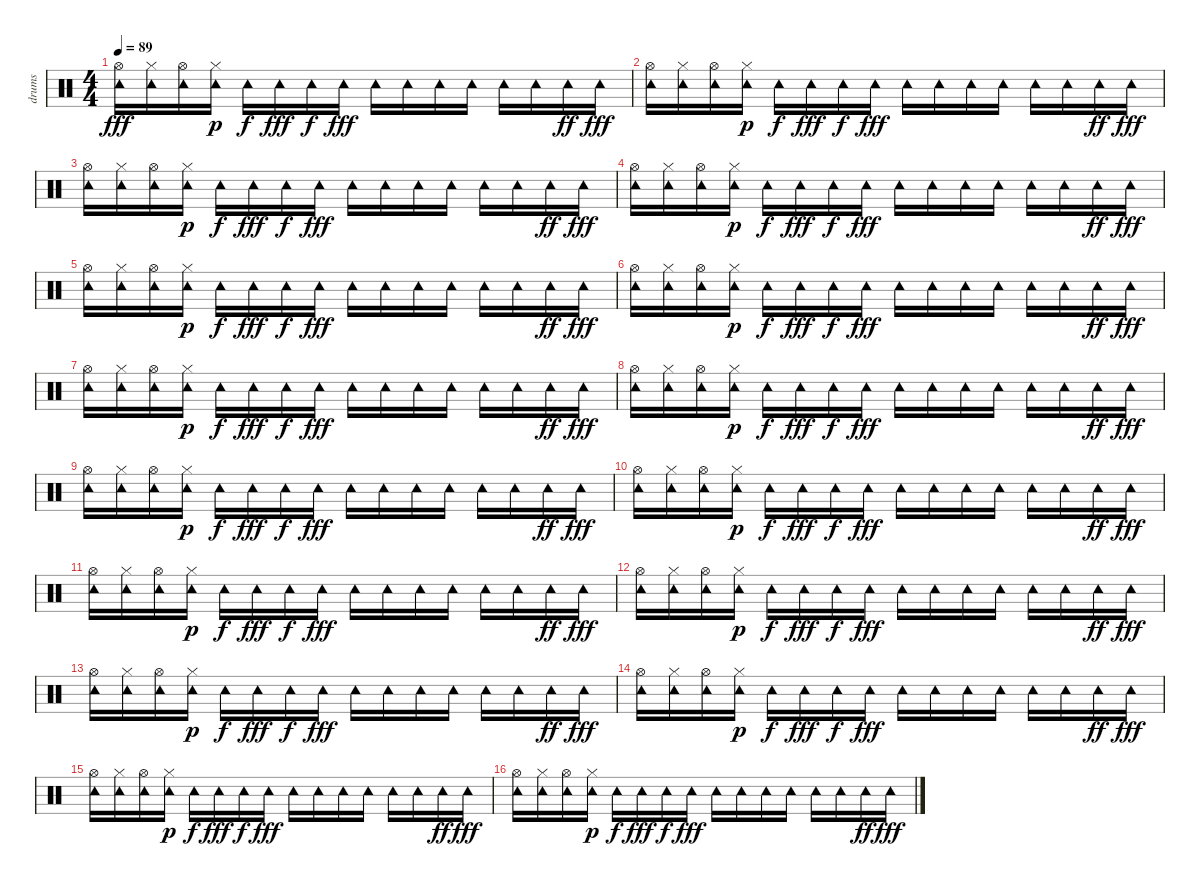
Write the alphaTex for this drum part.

\track ("drums" "drums") {instrument percussion}
\staff {score}
\articulation defaults
\ts (4 4)
\tempo 89
\clef neutral
\ks c
("Hi-Hat (open)" "Tambourine (hit)").16{dy fff} ("Hi-Hat (closed)" "Tambourine (hit)").16 ("Hi-Hat (open)" "Tambourine (hit)").16 ("Hi-Hat (closed)" "Tambourine (hit)").16{dy p} "Tambourine (hit)".16{dy f} "Tambourine (hit)".16{dy fff} "Tambourine (hit)".16{dy f} "Tambourine (hit)".16{dy fff} "Tambourine (hit)".16 "Tambourine (hit)".16 "Tambourine (hit)".16 "Tambourine (hit)".16 "Tambourine (hit)".16 "Tambourine (hit)".16 "Tambourine (hit)".16{dy ff} "Tambourine (hit)".16{dy fff} |
("Hi-Hat (open)" "Tambourine (hit)").16 ("Hi-Hat (closed)" "Tambourine (hit)").16 ("Hi-Hat (open)" "Tambourine (hit)").16 ("Hi-Hat (closed)" "Tambourine (hit)").16{dy p} "Tambourine (hit)".16{dy f} "Tambourine (hit)".16{dy fff} "Tambourine (hit)".16{dy f} "Tambourine (hit)".16{dy fff} "Tambourine (hit)".16 "Tambourine (hit)".16 "Tambourine (hit)".16 "Tambourine (hit)".16 "Tambourine (hit)".16 "Tambourine (hit)".16 "Tambourine (hit)".16{dy ff} "Tambourine (hit)".16{dy fff} |
("Hi-Hat (open)" "Tambourine (hit)").16 ("Hi-Hat (closed)" "Tambourine (hit)").16 ("Hi-Hat (open)" "Tambourine (hit)").16 ("Hi-Hat (closed)" "Tambourine (hit)").16{dy p} "Tambourine (hit)".16{dy f} "Tambourine (hit)".16{dy fff} "Tambourine (hit)".16{dy f} "Tambourine (hit)".16{dy fff} "Tambourine (hit)".16 "Tambourine (hit)".16 "Tambourine (hit)".16 "Tambourine (hit)".16 "Tambourine (hit)".16 "Tambourine (hit)".16 "Tambourine (hit)".16{dy ff} "Tambourine (hit)".16{dy fff} |
("Hi-Hat (open)" "Tambourine (hit)").16 ("Hi-Hat (closed)" "Tambourine (hit)").16 ("Hi-Hat (open)" "Tambourine (hit)").16 ("Hi-Hat (closed)" "Tambourine (hit)").16{dy p} "Tambourine (hit)".16{dy f} "Tambourine (hit)".16{dy fff} "Tambourine (hit)".16{dy f} "Tambourine (hit)".16{dy fff} "Tambourine (hit)".16 "Tambourine (hit)".16 "Tambourine (hit)".16 "Tambourine (hit)".16 "Tambourine (hit)".16 "Tambourine (hit)".16 "Tambourine (hit)".16{dy ff} "Tambourine (hit)".16{dy fff} |
("Hi-Hat (open)" "Tambourine (hit)").16 ("Hi-Hat (closed)" "Tambourine (hit)").16 ("Hi-Hat (open)" "Tambourine (hit)").16 ("Hi-Hat (closed)" "Tambourine (hit)").16{dy p} "Tambourine (hit)".16{dy f} "Tambourine (hit)".16{dy fff} "Tambourine (hit)".16{dy f} "Tambourine (hit)".16{dy fff} "Tambourine (hit)".16 "Tambourine (hit)".16 "Tambourine (hit)".16 "Tambourine (hit)".16 "Tambourine (hit)".16 "Tambourine (hit)".16 "Tambourine (hit)".16{dy ff} "Tambourine (hit)".16{dy fff} |
("Hi-Hat (open)" "Tambourine (hit)").16 ("Hi-Hat (closed)" "Tambourine (hit)").16 ("Hi-Hat (open)" "Tambourine (hit)").16 ("Hi-Hat (closed)" "Tambourine (hit)").16{dy p} "Tambourine (hit)".16{dy f} "Tambourine (hit)".16{dy fff} "Tambourine (hit)".16{dy f} "Tambourine (hit)".16{dy fff} "Tambourine (hit)".16 "Tambourine (hit)".16 "Tambourine (hit)".16 "Tambourine (hit)".16 "Tambourine (hit)".16 "Tambourine (hit)".16 "Tambourine (hit)".16{dy ff} "Tambourine (hit)".16{dy fff} |
("Hi-Hat (open)" "Tambourine (hit)").16 ("Hi-Hat (closed)" "Tambourine (hit)").16 ("Hi-Hat (open)" "Tambourine (hit)").16 ("Hi-Hat (closed)" "Tambourine (hit)").16{dy p} "Tambourine (hit)".16{dy f} "Tambourine (hit)".16{dy fff} "Tambourine (hit)".16{dy f} "Tambourine (hit)".16{dy fff} "Tambourine (hit)".16 "Tambourine (hit)".16 "Tambourine (hit)".16 "Tambourine (hit)".16 "Tambourine (hit)".16 "Tambourine (hit)".16 "Tambourine (hit)".16{dy ff} "Tambourine (hit)".16{dy fff} |
("Hi-Hat (open)" "Tambourine (hit)").16 ("Hi-Hat (closed)" "Tambourine (hit)").16 ("Hi-Hat (open)" "Tambourine (hit)").16 ("Hi-Hat (closed)" "Tambourine (hit)").16{dy p} "Tambourine (hit)".16{dy f} "Tambourine (hit)".16{dy fff} "Tambourine (hit)".16{dy f} "Tambourine (hit)".16{dy fff} "Tambourine (hit)".16 "Tambourine (hit)".16 "Tambourine (hit)".16 "Tambourine (hit)".16 "Tambourine (hit)".16 "Tambourine (hit)".16 "Tambourine (hit)".16{dy ff} "Tambourine (hit)".16{dy fff} |
("Hi-Hat (open)" "Tambourine (hit)").16 ("Hi-Hat (closed)" "Tambourine (hit)").16 ("Hi-Hat (open)" "Tambourine (hit)").16 ("Hi-Hat (closed)" "Tambourine (hit)").16{dy p} "Tambourine (hit)".16{dy f} "Tambourine (hit)".16{dy fff} "Tambourine (hit)".16{dy f} "Tambourine (hit)".16{dy fff} "Tambourine (hit)".16 "Tambourine (hit)".16 "Tambourine (hit)".16 "Tambourine (hit)".16 "Tambourine (hit)".16 "Tambourine (hit)".16 "Tambourine (hit)".16{dy ff} "Tambourine (hit)".16{dy fff} |
("Hi-Hat (open)" "Tambourine (hit)").16 ("Hi-Hat (closed)" "Tambourine (hit)").16 ("Hi-Hat (open)" "Tambourine (hit)").16 ("Hi-Hat (closed)" "Tambourine (hit)").16{dy p} "Tambourine (hit)".16{dy f} "Tambourine (hit)".16{dy fff} "Tambourine (hit)".16{dy f} "Tambourine (hit)".16{dy fff} "Tambourine (hit)".16 "Tambourine (hit)".16 "Tambourine (hit)".16 "Tambourine (hit)".16 "Tambourine (hit)".16 "Tambourine (hit)".16 "Tambourine (hit)".16{dy ff} "Tambourine (hit)".16{dy fff} |
("Hi-Hat (open)" "Tambourine (hit)").16 ("Hi-Hat (closed)" "Tambourine (hit)").16 ("Hi-Hat (open)" "Tambourine (hit)").16 ("Hi-Hat (closed)" "Tambourine (hit)").16{dy p} "Tambourine (hit)".16{dy f} "Tambourine (hit)".16{dy fff} "Tambourine (hit)".16{dy f} "Tambourine (hit)".16{dy fff} "Tambourine (hit)".16 "Tambourine (hit)".16 "Tambourine (hit)".16 "Tambourine (hit)".16 "Tambourine (hit)".16 "Tambourine (hit)".16 "Tambourine (hit)".16{dy ff} "Tambourine (hit)".16{dy fff} |
("Hi-Hat (open)" "Tambourine (hit)").16 ("Hi-Hat (closed)" "Tambourine (hit)").16 ("Hi-Hat (open)" "Tambourine (hit)").16 ("Hi-Hat (closed)" "Tambourine (hit)").16{dy p} "Tambourine (hit)".16{dy f} "Tambourine (hit)".16{dy fff} "Tambourine (hit)".16{dy f} "Tambourine (hit)".16{dy fff} "Tambourine (hit)".16 "Tambourine (hit)".16 "Tambourine (hit)".16 "Tambourine (hit)".16 "Tambourine (hit)".16 "Tambourine (hit)".16 "Tambourine (hit)".16{dy ff} "Tambourine (hit)".16{dy fff} |
("Hi-Hat (open)" "Tambourine (hit)").16 ("Hi-Hat (closed)" "Tambourine (hit)").16 ("Hi-Hat (open)" "Tambourine (hit)").16 ("Hi-Hat (closed)" "Tambourine (hit)").16{dy p} "Tambourine (hit)".16{dy f} "Tambourine (hit)".16{dy fff} "Tambourine (hit)".16{dy f} "Tambourine (hit)".16{dy fff} "Tambourine (hit)".16 "Tambourine (hit)".16 "Tambourine (hit)".16 "Tambourine (hit)".16 "Tambourine (hit)".16 "Tambourine (hit)".16 "Tambourine (hit)".16{dy ff} "Tambourine (hit)".16{dy fff} |
("Hi-Hat (open)" "Tambourine (hit)").16 ("Hi-Hat (closed)" "Tambourine (hit)").16 ("Hi-Hat (open)" "Tambourine (hit)").16 ("Hi-Hat (closed)" "Tambourine (hit)").16{dy p} "Tambourine (hit)".16{dy f} "Tambourine (hit)".16{dy fff} "Tambourine (hit)".16{dy f} "Tambourine (hit)".16{dy fff} "Tambourine (hit)".16 "Tambourine (hit)".16 "Tambourine (hit)".16 "Tambourine (hit)".16 "Tambourine (hit)".16 "Tambourine (hit)".16 "Tambourine (hit)".16{dy ff} "Tambourine (hit)".16{dy fff} |
("Hi-Hat (open)" "Tambourine (hit)").16 ("Hi-Hat (closed)" "Tambourine (hit)").16 ("Hi-Hat (open)" "Tambourine (hit)").16 ("Hi-Hat (closed)" "Tambourine (hit)").16{dy p} "Tambourine (hit)".16{dy f} "Tambourine (hit)".16{dy fff} "Tambourine (hit)".16{dy f} "Tambourine (hit)".16{dy fff} "Tambourine (hit)".16 "Tambourine (hit)".16 "Tambourine (hit)".16 "Tambourine (hit)".16 "Tambourine (hit)".16 "Tambourine (hit)".16 "Tambourine (hit)".16{dy ff} "Tambourine (hit)".16{dy fff} |
("Hi-Hat (open)" "Tambourine (hit)").16 ("Hi-Hat (closed)" "Tambourine (hit)").16 ("Hi-Hat (open)" "Tambourine (hit)").16 ("Hi-Hat (closed)" "Tambourine (hit)").16{dy p} "Tambourine (hit)".16{dy f} "Tambourine (hit)".16{dy fff} "Tambourine (hit)".16{dy f} "Tambourine (hit)".16{dy fff} "Tambourine (hit)".16 "Tambourine (hit)".16 "Tambourine (hit)".16 "Tambourine (hit)".16 "Tambourine (hit)".16 "Tambourine (hit)".16 "Tambourine (hit)".16{dy ff} "Tambourine (hit)".16{dy fff}
